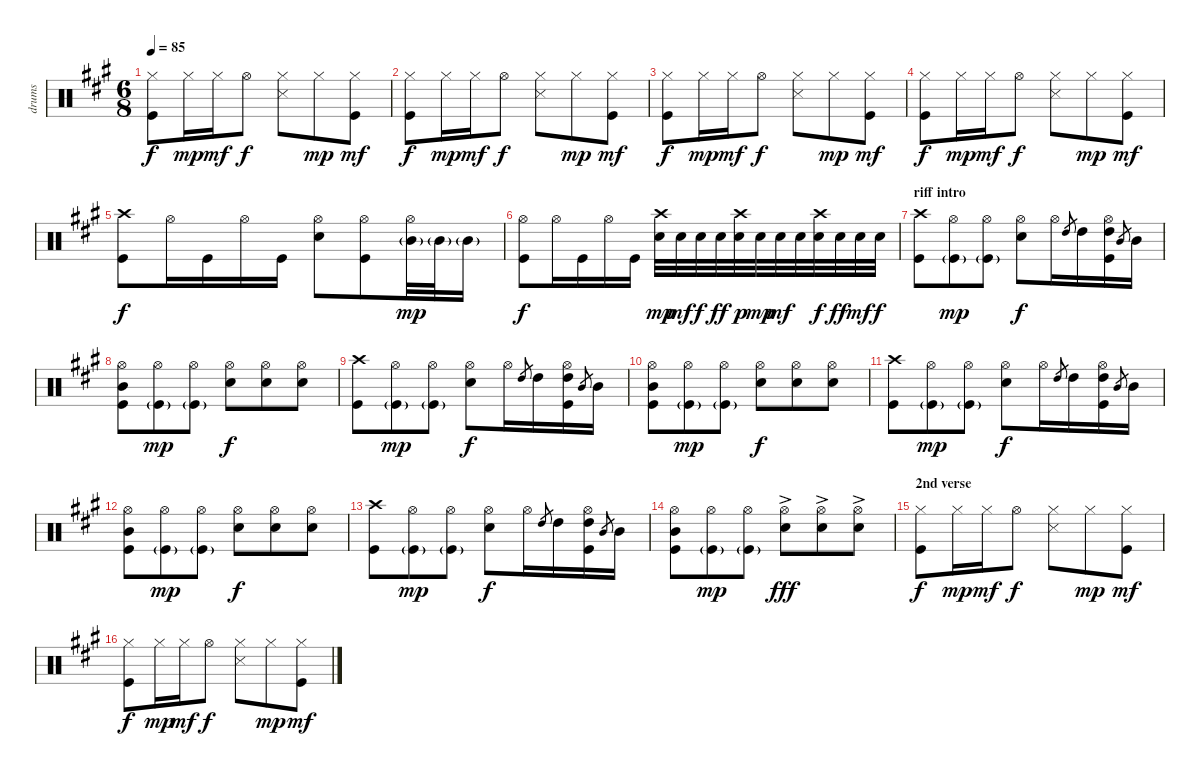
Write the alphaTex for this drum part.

\track ("drums" "drums") {instrument percussion}
\staff {score}
\articulation defaults
\ts (6 8)
\tempo 85
\clef neutral
\ks f#minor
("Hi-Hat (closed)" "Kick (hit)").8{dy f} "Hi-Hat (closed)".16{dy mp} "Hi-Hat (closed)".16{dy mf} "Hi-Hat (open)".8{dy f} ("Hi-Hat (closed)" "Snare (side stick) 3").8 "Hi-Hat (closed)".8{dy mp} ("Hi-Hat (closed)" "Kick (hit)").8{dy mf} |
("Hi-Hat (closed)" "Kick (hit)").8{dy f} "Hi-Hat (closed)".16{dy mp} "Hi-Hat (closed)".16{dy mf} "Hi-Hat (open)".8{dy f} ("Hi-Hat (closed)" "Snare (side stick) 3").8 "Hi-Hat (closed)".8{dy mp} ("Hi-Hat (closed)" "Kick (hit)").8{dy mf} |
("Hi-Hat (closed)" "Kick (hit)").8{dy f} "Hi-Hat (closed)".16{dy mp} "Hi-Hat (closed)".16{dy mf} "Hi-Hat (open)".8{dy f} ("Hi-Hat (closed)" "Snare (side stick) 3").8 "Hi-Hat (closed)".8{dy mp} ("Hi-Hat (closed)" "Kick (hit)").8{dy mf} |
("Hi-Hat (closed)" "Kick (hit)").8{dy f} "Hi-Hat (closed)".16{dy mp} "Hi-Hat (closed)".16{dy mf} "Hi-Hat (open)".8{dy f} ("Hi-Hat (closed)" "Snare (side stick) 3").8 "Hi-Hat (closed)".8{dy mp} ("Hi-Hat (closed)" "Kick (hit)").8{dy mf} |
("Crash high (hit)" "Kick (hit)").8{dy f} "Hi-Hat (open)".16 "Kick (hit)".16 "Hi-Hat (open)".16 "Kick (hit)".16 ("Hi-Hat (open)" "Electric Snare (hit)").8 ("Hi-Hat (open)" "Kick (hit)").8 ("Hi-Hat (open)" "Mid Tom (hit)"{g}).32{dy mp} "Mid Tom (hit)"{g}.32 "Mid Tom (hit)"{g}.16 |
("Hi-Hat (open)" "Kick (hit)").8{dy f} "Hi-Hat (open)".16 "Kick (hit)".16 "Hi-Hat (open)".16 "Kick (hit)".16 ("Crash high (hit)" "Electric Snare (hit)").32{dy mp} "Electric Snare (hit)".32{dy mf} "Electric Snare (hit)".32{dy f} "Electric Snare (hit)".32{dy ff} ("Crash high (hit)" "Electric Snare (hit)").32{dy p} "Electric Snare (hit)".32{dy mp} "Electric Snare (hit)".32{dy mf} "Electric Snare (hit)".32 ("Crash high (hit)" "Electric Snare (hit)").32{dy f} "Electric Snare (hit)".32{dy ff} "Electric Snare (hit)".32{dy mf} "Electric Snare (hit)".32{dy f} |
\section ("" "riff intro")
("Crash high (hit)" "Kick (hit)").8 ("Hi-Hat (open)" "Kick (hit)"{g}).8{dy mp} ("Hi-Hat (open)" "Kick (hit)"{g}).8 ("Hi-Hat (open)" "Electric Snare (hit)").8{dy f} "Hi-Hat (open)".16 "High Tom (hit)".8{gr} "High Tom (hit)".16 ("Hi-Hat (open)" "High Tom (hit)" "Kick (hit)").16 "Mid Tom (hit)".8{gr} "Mid Tom (hit)".16 |
("Hi-Hat (open)" "Mid Tom (hit)" "Kick (hit)").8 ("Hi-Hat (open)" "Kick (hit)"{g}).8{dy mp} ("Hi-Hat (open)" "Kick (hit)"{g}).8 ("Hi-Hat (open)" "Electric Snare (hit)").8{dy f} ("Hi-Hat (open)" "Electric Snare (hit)").8 ("Hi-Hat (open)" "Electric Snare (hit)").8 |
("Crash high (hit)" "Kick (hit)").8 ("Hi-Hat (open)" "Kick (hit)"{g}).8{dy mp} ("Hi-Hat (open)" "Kick (hit)"{g}).8 ("Hi-Hat (open)" "Electric Snare (hit)").8{dy f} "Hi-Hat (open)".16 "High Tom (hit)".8{gr} "High Tom (hit)".16 ("Hi-Hat (open)" "High Tom (hit)" "Kick (hit)").16 "Mid Tom (hit)".8{gr} "Mid Tom (hit)".16 |
("Hi-Hat (open)" "Mid Tom (hit)" "Kick (hit)").8 ("Hi-Hat (open)" "Kick (hit)"{g}).8{dy mp} ("Hi-Hat (open)" "Kick (hit)"{g}).8 ("Hi-Hat (open)" "Electric Snare (hit)").8{dy f} ("Hi-Hat (open)" "Electric Snare (hit)").8 ("Hi-Hat (open)" "Electric Snare (hit)").8 |
("Crash high (hit)" "Kick (hit)").8 ("Hi-Hat (open)" "Kick (hit)"{g}).8{dy mp} ("Hi-Hat (open)" "Kick (hit)"{g}).8 ("Hi-Hat (open)" "Electric Snare (hit)").8{dy f} "Hi-Hat (open)".16 "High Tom (hit)".8{gr} "High Tom (hit)".16 ("Hi-Hat (open)" "High Tom (hit)" "Kick (hit)").16 "Mid Tom (hit)".8{gr} "Mid Tom (hit)".16 |
("Hi-Hat (open)" "Mid Tom (hit)" "Kick (hit)").8 ("Hi-Hat (open)" "Kick (hit)"{g}).8{dy mp} ("Hi-Hat (open)" "Kick (hit)"{g}).8 ("Hi-Hat (open)" "Electric Snare (hit)").8{dy f} ("Hi-Hat (open)" "Electric Snare (hit)").8 ("Hi-Hat (open)" "Electric Snare (hit)").8 |
("Crash high (hit)" "Kick (hit)").8 ("Hi-Hat (open)" "Kick (hit)"{g}).8{dy mp} ("Hi-Hat (open)" "Kick (hit)"{g}).8 ("Hi-Hat (open)" "Electric Snare (hit)").8{dy f} "Hi-Hat (open)".16 "High Tom (hit)".8{gr} "High Tom (hit)".16 ("Hi-Hat (open)" "High Tom (hit)" "Kick (hit)").16 "Mid Tom (hit)".8{gr} "Mid Tom (hit)".16 |
("Hi-Hat (open)" "Mid Tom (hit)" "Kick (hit)").8 ("Hi-Hat (open)" "Kick (hit)"{g}).8{dy mp} ("Hi-Hat (open)" "Kick (hit)"{g}).8 ("Hi-Hat (open)"{ac} "Electric Snare (hit)").8{dy fff} ("Hi-Hat (open)"{ac} "Electric Snare (hit)").8 ("Hi-Hat (open)"{ac} "Electric Snare (hit)").8 |
\section ("" "2nd verse")
("Hi-Hat (closed)" "Kick (hit)").8{dy f} "Hi-Hat (closed)".16{dy mp} "Hi-Hat (closed)".16{dy mf} "Hi-Hat (open)".8{dy f} ("Hi-Hat (closed)" "Snare (side stick) 3").8 "Hi-Hat (closed)".8{dy mp} ("Hi-Hat (closed)" "Kick (hit)").8{dy mf} |
("Hi-Hat (closed)" "Kick (hit)").8{dy f} "Hi-Hat (closed)".16{dy mp} "Hi-Hat (closed)".16{dy mf} "Hi-Hat (open)".8{dy f} ("Hi-Hat (closed)" "Snare (side stick) 3").8 "Hi-Hat (closed)".8{dy mp} ("Hi-Hat (closed)" "Kick (hit)").8{dy mf}
